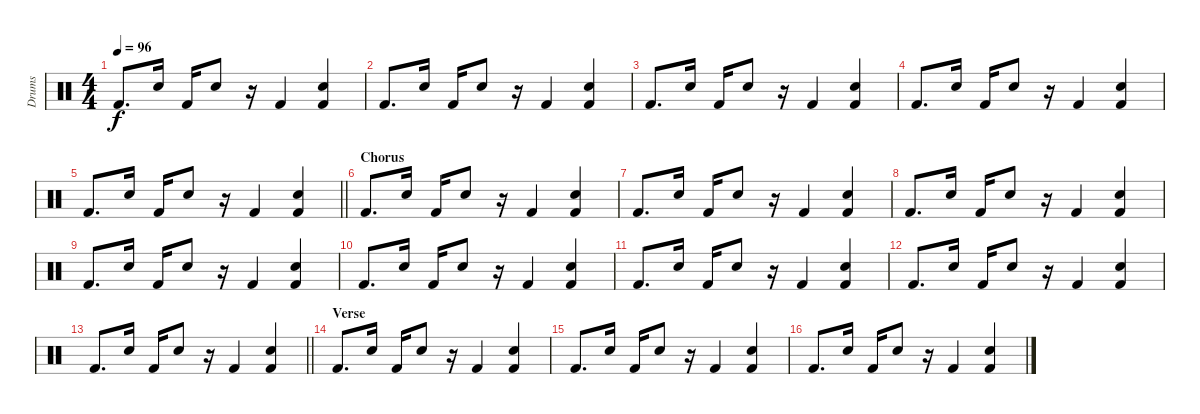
\track ("Drums" "Drums") {instrument percussion}
\staff {score}
\articulation defaults
\ts (4 4)
\tempo 96
\clef neutral
\ks c "Kick (hit) 2".8{d dy f} "Snare (hit) 2".16 "Kick (hit) 2".16 "Snare (hit) 2".8
r.16 "Kick (hit) 2".4 ("Snare (hit) 2" "Kick (hit) 2").4 |
"Kick (hit) 2".8{d} "Snare (hit) 2".16 "Kick (hit) 2".16 "Snare (hit) 2".8 r.16 "Kick (hit) 2".4 ("Snare (hit) 2" "Kick (hit) 2").4 |
"Kick (hit) 2".8{d} "Snare (hit) 2".16 "Kick (hit) 2".16 "Snare (hit) 2".8 r.16 "Kick (hit) 2".4 ("Snare (hit) 2" "Kick (hit) 2").4 |
"Kick (hit) 2".8{d} "Snare (hit) 2".16 "Kick (hit) 2".16 "Snare (hit) 2".8 r.16 "Kick (hit) 2".4 ("Snare (hit) 2" "Kick (hit) 2").4 |
\barLineRight lightlight "Kick (hit) 2".8{d} "Snare (hit) 2".16 "Kick (hit) 2".16 "Snare (hit) 2".8
r.16 "Kick (hit) 2".4 ("Snare (hit) 2" "Kick (hit) 2").4 |
\section ("" "Chorus")
"Kick (hit) 2".8{d} "Snare (hit) 2".16 "Kick (hit) 2".16 "Snare (hit) 2".8 r.16 "Kick (hit) 2".4 ("Snare (hit) 2" "Kick (hit) 2").4 |
"Kick (hit) 2".8{d} "Snare (hit) 2".16 "Kick (hit) 2".16 "Snare (hit) 2".8 r.16 "Kick (hit) 2".4 ("Snare (hit) 2" "Kick (hit) 2").4 |
"Kick (hit) 2".8{d} "Snare (hit) 2".16 "Kick (hit) 2".16 "Snare (hit) 2".8 r.16 "Kick (hit) 2".4 ("Snare (hit) 2" "Kick (hit) 2").4 |
"Kick (hit) 2".8{d} "Snare (hit) 2".16 "Kick (hit) 2".16 "Snare (hit) 2".8 r.16 "Kick (hit) 2".4 ("Snare (hit) 2" "Kick (hit) 2").4 |
"Kick (hit) 2".8{d} "Snare (hit) 2".16 "Kick (hit) 2".16 "Snare (hit) 2".8 r.16 "Kick (hit) 2".4 ("Snare (hit) 2" "Kick (hit) 2").4 |
"Kick (hit) 2".8{d} "Snare (hit) 2".16 "Kick (hit) 2".16 "Snare (hit) 2".8 r.16 "Kick (hit) 2".4 ("Snare (hit) 2" "Kick (hit) 2").4 |
"Kick (hit) 2".8{d} "Snare (hit) 2".16 "Kick (hit) 2".16 "Snare (hit) 2".8 r.16 "Kick (hit) 2".4 ("Snare (hit) 2" "Kick (hit) 2").4 |
\barLineRight lightlight "Kick (hit) 2".8{d} "Snare (hit) 2".16 "Kick (hit) 2".16 "Snare (hit) 2".8
r.16 "Kick (hit) 2".4 ("Snare (hit) 2" "Kick (hit) 2").4 |
\section ("" "Verse")
"Kick (hit) 2".8{d} "Snare (hit) 2".16 "Kick (hit) 2".16 "Snare (hit) 2".8 r.16 "Kick (hit) 2".4 ("Snare (hit) 2" "Kick (hit) 2").4 |
"Kick (hit) 2".8{d} "Snare (hit) 2".16 "Kick (hit) 2".16 "Snare (hit) 2".8 r.16 "Kick (hit) 2".4 ("Snare (hit) 2" "Kick (hit) 2").4 |
"Kick (hit) 2".8{d} "Snare (hit) 2".16 "Kick (hit) 2".16 "Snare (hit) 2".8 r.16 "Kick (hit) 2".4 ("Snare (hit) 2" "Kick (hit) 2").4
